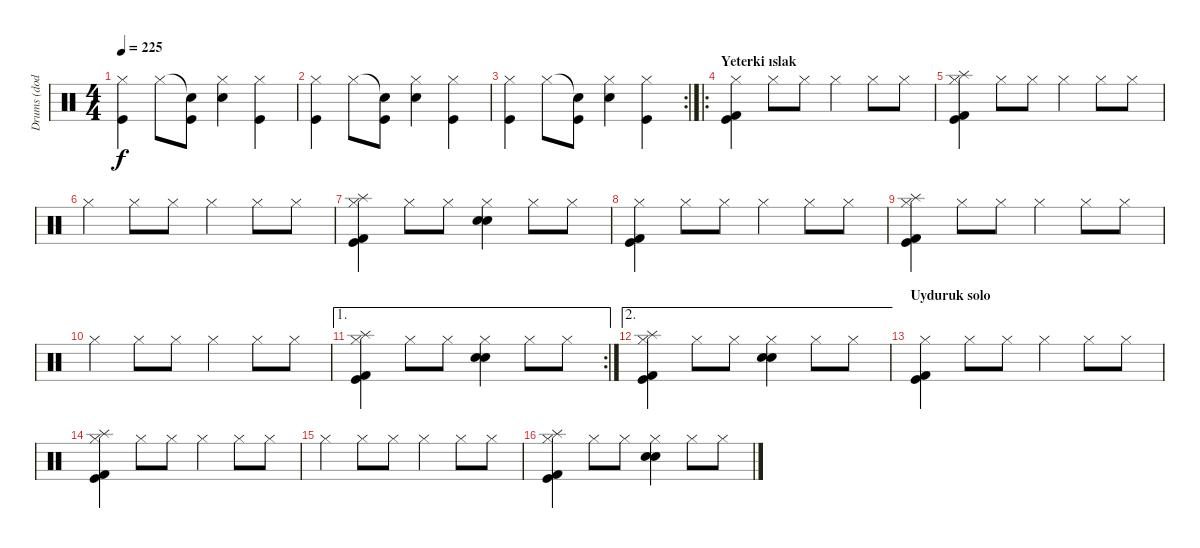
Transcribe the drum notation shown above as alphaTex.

\track ("Drums (dodo)" "Drums (dod") {instrument percussion}
\staff {score}
\articulation defaults
\ts (4 4)
\tempo 225
\clef neutral
\ks c
("Hi-Hat (closed)" "Kick (hit)").4{dy f} "Hi-Hat (closed)".8 ("Snare (hit)"{t} "Kick (hit)").8 ("Hi-Hat (closed)" "Electric Snare (hit)").4 ("Hi-Hat (closed)" "Kick (hit)").4 |
("Hi-Hat (closed)" "Kick (hit)").4 "Hi-Hat (closed)".8 ("Snare (hit)"{t} "Kick (hit)").8 ("Hi-Hat (closed)" "Electric Snare (hit)").4 ("Hi-Hat (closed)" "Kick (hit)").4 |
\rc 2
("Hi-Hat (closed)" "Kick (hit)").4 "Hi-Hat (closed)".8 ("Snare (hit)"{t} "Kick (hit)").8 ("Hi-Hat (closed)" "Electric Snare (hit)").4 ("Hi-Hat (closed)" "Kick (hit)").4 |
\ro
\section ("" "Yeterki ıslak")
("Hi-Hat (closed)" "Kick (hit)" "Kick (hit) 2").4 "Hi-Hat (closed)".8 "Hi-Hat (closed)".8 "Hi-Hat (closed)".4 "Hi-Hat (closed)".8 "Hi-Hat (closed)".8 |
("Hi-Hat (closed)" "Splash (hit)" "Kick (hit)" "Kick (hit) 2").4 "Hi-Hat (closed)".8 "Hi-Hat (closed)".8 "Hi-Hat (closed)".4 "Hi-Hat (closed)".8 "Hi-Hat (closed)".8 |
"Hi-Hat (closed)".4 "Hi-Hat (closed)".8 "Hi-Hat (closed)".8 "Hi-Hat (closed)".4 "Hi-Hat (closed)".8 "Hi-Hat (closed)".8 |
("Hi-Hat (closed)" "Splash (hit)" "Kick (hit)" "Kick (hit) 2").4 "Hi-Hat (closed)".8 "Hi-Hat (closed)".8 ("Hi-Hat (closed)" "Electric Snare (hit)" "Snare (hit) 2").4 "Hi-Hat (closed)".8 "Hi-Hat (closed)".8 |
("Hi-Hat (closed)" "Kick (hit)" "Kick (hit) 2").4 "Hi-Hat (closed)".8 "Hi-Hat (closed)".8 "Hi-Hat (closed)".4 "Hi-Hat (closed)".8 "Hi-Hat (closed)".8 |
("Hi-Hat (closed)" "Splash (hit)" "Kick (hit)" "Kick (hit) 2").4 "Hi-Hat (closed)".8 "Hi-Hat (closed)".8 "Hi-Hat (closed)".4 "Hi-Hat (closed)".8 "Hi-Hat (closed)".8 |
"Hi-Hat (closed)".4 "Hi-Hat (closed)".8 "Hi-Hat (closed)".8 "Hi-Hat (closed)".4 "Hi-Hat (closed)".8 "Hi-Hat (closed)".8 |
\ae 1
\rc 2
("Hi-Hat (closed)" "Splash (hit)" "Kick (hit)" "Kick (hit) 2").4 "Hi-Hat (closed)".8 "Hi-Hat (closed)".8 ("Hi-Hat (closed)" "Electric Snare (hit)" "Snare (hit) 2").4 "Hi-Hat (closed)".8 "Hi-Hat (closed)".8 |
\ae 2
("Hi-Hat (closed)" "Splash (hit)" "Kick (hit)" "Kick (hit) 2").4 "Hi-Hat (closed)".8 "Hi-Hat (closed)".8 ("Hi-Hat (closed)" "Electric Snare (hit)" "Snare (hit) 2").4 "Hi-Hat (closed)".8 "Hi-Hat (closed)".8 |
\section ("" "Uyduruk solo")
("Hi-Hat (closed)" "Kick (hit)" "Kick (hit) 2").4 "Hi-Hat (closed)".8 "Hi-Hat (closed)".8 "Hi-Hat (closed)".4 "Hi-Hat (closed)".8 "Hi-Hat (closed)".8 |
("Hi-Hat (closed)" "Splash (hit)" "Kick (hit)" "Kick (hit) 2").4 "Hi-Hat (closed)".8 "Hi-Hat (closed)".8 "Hi-Hat (closed)".4 "Hi-Hat (closed)".8 "Hi-Hat (closed)".8 |
"Hi-Hat (closed)".4 "Hi-Hat (closed)".8 "Hi-Hat (closed)".8 "Hi-Hat (closed)".4 "Hi-Hat (closed)".8 "Hi-Hat (closed)".8 |
("Hi-Hat (closed)" "Splash (hit)" "Kick (hit)" "Kick (hit) 2").4 "Hi-Hat (closed)".8 "Hi-Hat (closed)".8 ("Hi-Hat (closed)" "Electric Snare (hit)" "Snare (hit) 2").4 "Hi-Hat (closed)".8 "Hi-Hat (closed)".8
